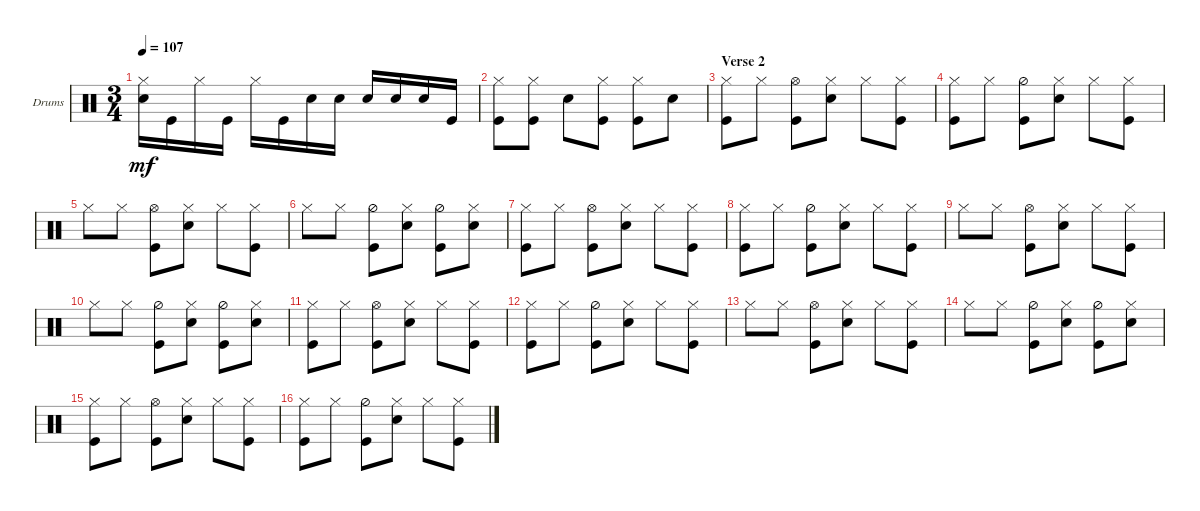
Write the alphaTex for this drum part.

\defaultSystemsLayout 4
\bracketExtendMode groupsimilarinstruments
\firstSystemTrackNameOrientation horizontal
\otherSystemsTrackNameOrientation horizontal
\track ("Drumkit" "Drums") {instrument percussion}
\staff {score}
\articulation defaults
\ts (3 4)
\tempo 107
\clef neutral
\ks c
("Snare (hit) 2" "Hi-Hat (closed)").16{dy mf} "Kick (hit)".16 "Hi-Hat (closed)".16 "Kick (hit)".16 "Hi-Hat (closed)".16 "Kick (hit)".16 "Snare (hit) 2".16 "Snare (hit) 2".16 "Snare (hit) 2".16 "Snare (hit) 2".16 "Snare (hit) 2".16 "Kick (hit)".16 |
("Kick (hit)" "Hi-Hat (closed)").8 ("Kick (hit)" "Hi-Hat (closed)").8 "Snare (hit) 2".8 ("Kick (hit)" "Hi-Hat (closed)").8 ("Kick (hit)" "Hi-Hat (closed)").8 "Snare (hit) 2".8 |
\section ("" "Verse 2")
("Hi-Hat (closed)" "Kick (hit)").8 "Hi-Hat (closed)".8 ("Hi-Hat (open)" "Kick (hit)").8 ("Snare (hit) 2" "Hi-Hat (closed)").8 "Hi-Hat (closed)".8 ("Hi-Hat (closed)" "Kick (hit)").8 |
("Hi-Hat (closed)" "Kick (hit)").8 "Hi-Hat (closed)".8 ("Hi-Hat (half)" "Kick (hit)").8 ("Hi-Hat (closed)" "Snare (hit) 2").8 "Hi-Hat (closed)".8 ("Hi-Hat (closed)" "Kick (hit)").8 |
"Hi-Hat (closed)".8 "Hi-Hat (closed)".8 ("Hi-Hat (open)" "Kick (hit)").8 ("Snare (hit) 2" "Hi-Hat (closed)").8 "Hi-Hat (closed)".8 ("Kick (hit)" "Hi-Hat (closed)").8 |
"Hi-Hat (closed)".8 "Hi-Hat (closed)".8 ("Hi-Hat (half)" "Kick (hit)").8 ("Hi-Hat (closed)" "Snare (hit) 2").8 ("Hi-Hat (half)" "Kick (hit)").8 ("Hi-Hat (closed)" "Snare (hit) 2").8 |
("Hi-Hat (closed)" "Kick (hit)").8 "Hi-Hat (closed)".8 ("Hi-Hat (open)" "Kick (hit)").8 ("Snare (hit) 2" "Hi-Hat (closed)").8 "Hi-Hat (closed)".8 ("Hi-Hat (closed)" "Kick (hit)").8 |
("Hi-Hat (closed)" "Kick (hit)").8 "Hi-Hat (closed)".8 ("Hi-Hat (half)" "Kick (hit)").8 ("Hi-Hat (closed)" "Snare (hit) 2").8 "Hi-Hat (closed)".8 ("Hi-Hat (closed)" "Kick (hit)").8 |
"Hi-Hat (closed)".8 "Hi-Hat (closed)".8 ("Hi-Hat (open)" "Kick (hit)").8 ("Snare (hit) 2" "Hi-Hat (closed)").8 "Hi-Hat (closed)".8 ("Kick (hit)" "Hi-Hat (closed)").8 |
"Hi-Hat (closed)".8 "Hi-Hat (closed)".8 ("Hi-Hat (half)" "Kick (hit)").8 ("Hi-Hat (closed)" "Snare (hit) 2").8 ("Hi-Hat (half)" "Kick (hit)").8 ("Hi-Hat (closed)" "Snare (hit) 2").8 |
("Hi-Hat (closed)" "Kick (hit)").8 "Hi-Hat (closed)".8 ("Hi-Hat (open)" "Kick (hit)").8 ("Snare (hit) 2" "Hi-Hat (closed)").8 "Hi-Hat (closed)".8 ("Hi-Hat (closed)" "Kick (hit)").8 |
("Hi-Hat (closed)" "Kick (hit)").8 "Hi-Hat (closed)".8 ("Hi-Hat (half)" "Kick (hit)").8 ("Hi-Hat (closed)" "Snare (hit) 2").8 "Hi-Hat (closed)".8 ("Hi-Hat (closed)" "Kick (hit)").8 |
"Hi-Hat (closed)".8 "Hi-Hat (closed)".8 ("Hi-Hat (open)" "Kick (hit)").8 ("Snare (hit) 2" "Hi-Hat (closed)").8 "Hi-Hat (closed)".8 ("Kick (hit)" "Hi-Hat (closed)").8 |
"Hi-Hat (closed)".8 "Hi-Hat (closed)".8 ("Hi-Hat (half)" "Kick (hit)").8 ("Hi-Hat (closed)" "Snare (hit) 2").8 ("Hi-Hat (half)" "Kick (hit)").8 ("Hi-Hat (closed)" "Snare (hit) 2").8 |
("Hi-Hat (closed)" "Kick (hit)").8 "Hi-Hat (closed)".8 ("Hi-Hat (open)" "Kick (hit)").8 ("Snare (hit) 2" "Hi-Hat (closed)").8 "Hi-Hat (closed)".8 ("Hi-Hat (closed)" "Kick (hit)").8 |
("Hi-Hat (closed)" "Kick (hit)").8 "Hi-Hat (closed)".8 ("Hi-Hat (half)" "Kick (hit)").8 ("Hi-Hat (closed)" "Snare (hit) 2").8 "Hi-Hat (closed)".8 ("Hi-Hat (closed)" "Kick (hit)").8
